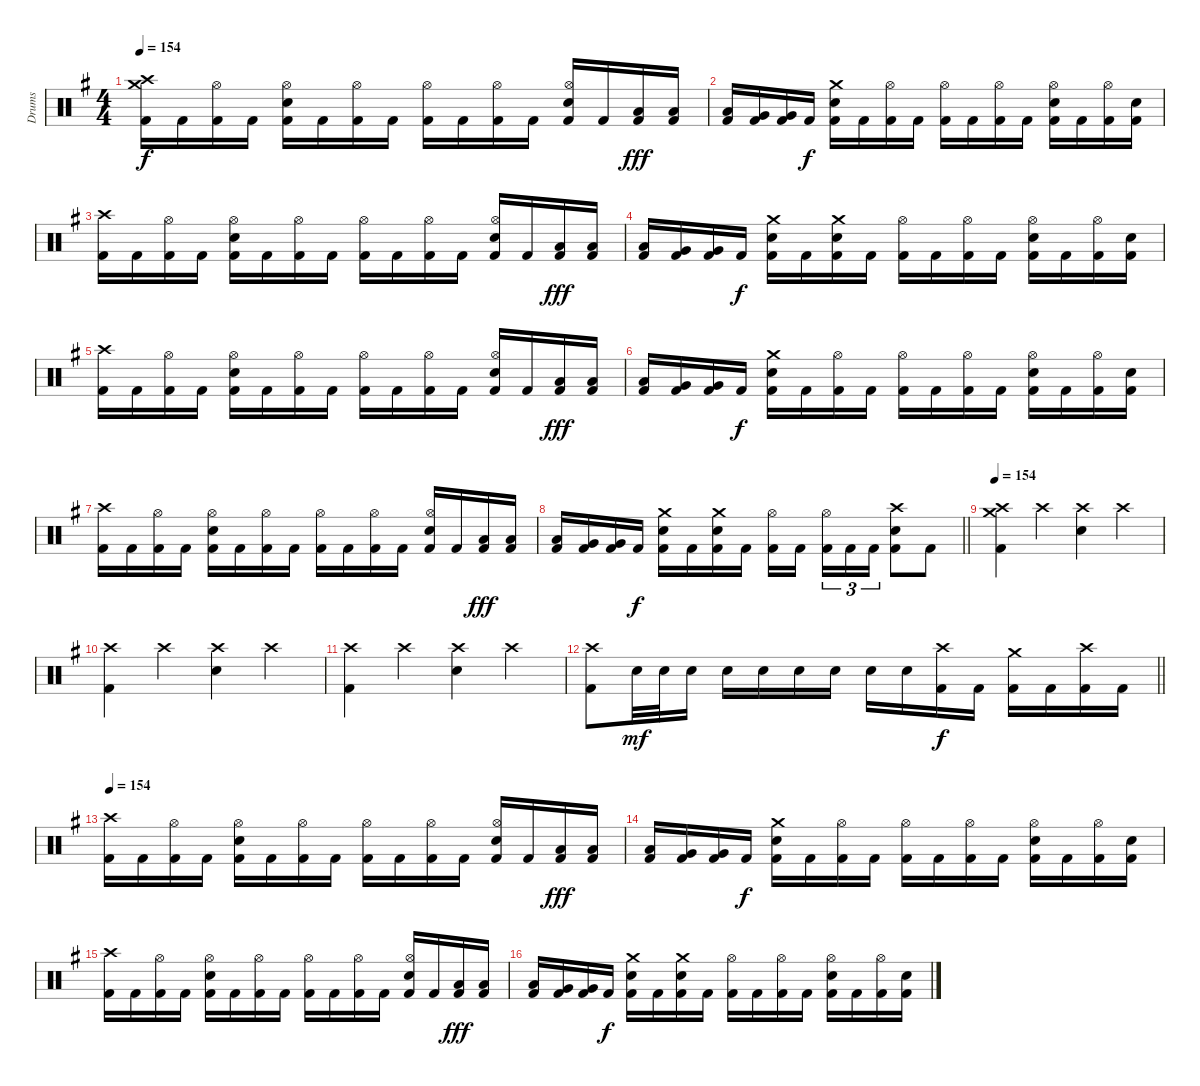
\track ("Drums" "Drums") {instrument percussion}
\staff {score}
\articulation defaults
\ts (4 4)
\tempo 154
\clef neutral
\ks eminor
("Crash high (hit)" "Crash medium (hit)" "Kick (hit) 2").16{dy f} "Kick (hit) 2".16 ("Hi-Hat (open)" "Kick (hit) 2").16 "Kick (hit) 2".16 ("Hi-Hat (open)" "Snare (hit) 2" "Kick (hit) 2").16 "Kick (hit) 2".16 ("Hi-Hat (open)" "Kick (hit) 2").16 "Kick (hit) 2".16 ("Hi-Hat (open)" "Kick (hit) 2").16 "Kick (hit) 2".16 ("Hi-Hat (open)" "Kick (hit) 2").16 "Kick (hit) 2".16 ("Hi-Hat (open)" "Snare (hit) 2" "Kick (hit) 2").16 "Kick (hit) 2".16 ("Low Tom (hit)" "Kick (hit) 2").16{dy fff} ("Low Tom (hit)" "Kick (hit) 2").16 |
("Low Tom (hit)" "Kick (hit) 2").16 ("Very Low Tom (hit)" "Kick (hit) 2").16 ("Very Low Tom (hit)" "Kick (hit) 2").16 "Kick (hit) 2".16{dy f} ("Crash medium (hit)" "Snare (hit) 2" "Kick (hit) 2").16 "Kick (hit) 2".16 ("Hi-Hat (open)" "Kick (hit) 2").16 "Kick (hit) 2".16 ("Hi-Hat (open)" "Kick (hit) 2").16 "Kick (hit) 2".16 ("Hi-Hat (open)" "Kick (hit) 2").16 "Kick (hit) 2".16 ("Hi-Hat (open)" "Snare (hit) 2" "Kick (hit) 2").16 "Kick (hit) 2".16 ("Hi-Hat (open)" "Kick (hit) 2").16 ("Snare (hit) 2" "Kick (hit) 2").16 |
("Crash high (hit)" "Kick (hit) 2").16 "Kick (hit) 2".16 ("Hi-Hat (open)" "Kick (hit) 2").16 "Kick (hit) 2".16 ("Hi-Hat (open)" "Snare (hit) 2" "Kick (hit) 2").16 "Kick (hit) 2".16 ("Hi-Hat (open)" "Kick (hit) 2").16 "Kick (hit) 2".16 ("Hi-Hat (open)" "Kick (hit) 2").16 "Kick (hit) 2".16 ("Hi-Hat (open)" "Kick (hit) 2").16 "Kick (hit) 2".16 ("Hi-Hat (open)" "Snare (hit) 2" "Kick (hit) 2").16 "Kick (hit) 2".16 ("Low Tom (hit)" "Kick (hit) 2").16{dy fff} ("Low Tom (hit)" "Kick (hit) 2").16 |
("Low Tom (hit)" "Kick (hit) 2").16 ("Very Low Tom (hit)" "Kick (hit) 2").16 ("Very Low Tom (hit)" "Kick (hit) 2").16 "Kick (hit) 2".16{dy f} ("Crash medium (hit)" "Snare (hit) 2" "Kick (hit) 2").16 "Kick (hit) 2".16 ("Crash medium (hit)" "Snare (hit) 2" "Kick (hit) 2").16 "Kick (hit) 2".16 ("Hi-Hat (open)" "Kick (hit) 2").16 "Kick (hit) 2".16 ("Hi-Hat (open)" "Kick (hit) 2").16 "Kick (hit) 2".16 ("Hi-Hat (open)" "Snare (hit) 2" "Kick (hit) 2").16 "Kick (hit) 2".16 ("Hi-Hat (open)" "Kick (hit) 2").16 ("Snare (hit) 2" "Kick (hit) 2").16 |
("Crash high (hit)" "Kick (hit) 2").16 "Kick (hit) 2".16 ("Hi-Hat (open)" "Kick (hit) 2").16 "Kick (hit) 2".16 ("Hi-Hat (open)" "Snare (hit) 2" "Kick (hit) 2").16 "Kick (hit) 2".16 ("Hi-Hat (open)" "Kick (hit) 2").16 "Kick (hit) 2".16 ("Hi-Hat (open)" "Kick (hit) 2").16 "Kick (hit) 2".16 ("Hi-Hat (open)" "Kick (hit) 2").16 "Kick (hit) 2".16 ("Hi-Hat (open)" "Snare (hit) 2" "Kick (hit) 2").16 "Kick (hit) 2".16 ("Low Tom (hit)" "Kick (hit) 2").16{dy fff} ("Low Tom (hit)" "Kick (hit) 2").16 |
("Low Tom (hit)" "Kick (hit) 2").16 ("Very Low Tom (hit)" "Kick (hit) 2").16 ("Very Low Tom (hit)" "Kick (hit) 2").16 "Kick (hit) 2".16{dy f} ("Crash medium (hit)" "Snare (hit) 2" "Kick (hit) 2").16 "Kick (hit) 2".16 ("Hi-Hat (open)" "Kick (hit) 2").16 "Kick (hit) 2".16 ("Hi-Hat (open)" "Kick (hit) 2").16 "Kick (hit) 2".16 ("Hi-Hat (open)" "Kick (hit) 2").16 "Kick (hit) 2".16 ("Hi-Hat (open)" "Snare (hit) 2" "Kick (hit) 2").16 "Kick (hit) 2".16 ("Hi-Hat (open)" "Kick (hit) 2").16 ("Snare (hit) 2" "Kick (hit) 2").16 |
("Crash high (hit)" "Kick (hit) 2").16 "Kick (hit) 2".16 ("Hi-Hat (open)" "Kick (hit) 2").16 "Kick (hit) 2".16 ("Hi-Hat (open)" "Snare (hit) 2" "Kick (hit) 2").16 "Kick (hit) 2".16 ("Hi-Hat (open)" "Kick (hit) 2").16 "Kick (hit) 2".16 ("Hi-Hat (open)" "Kick (hit) 2").16 "Kick (hit) 2".16 ("Hi-Hat (open)" "Kick (hit) 2").16 "Kick (hit) 2".16 ("Hi-Hat (open)" "Snare (hit) 2" "Kick (hit) 2").16 "Kick (hit) 2".16 ("Low Tom (hit)" "Kick (hit) 2").16{dy fff} ("Low Tom (hit)" "Kick (hit) 2").16 |
\barLineRight lightlight
("Low Tom (hit)" "Kick (hit) 2").16 ("Very Low Tom (hit)" "Kick (hit) 2").16 ("Very Low Tom (hit)" "Kick (hit) 2").16 "Kick (hit) 2".16{dy f} ("Crash medium (hit)" "Snare (hit) 2" "Kick (hit) 2").16 "Kick (hit) 2".16 ("Crash medium (hit)" "Snare (hit) 2" "Kick (hit) 2").16 "Kick (hit) 2".16 ("Hi-Hat (open)" "Kick (hit) 2").16 "Kick (hit) 2".16 ("Hi-Hat (open)" "Kick (hit) 2").16{tu (3 2)} "Kick (hit) 2".16{tu (3 2)} "Kick (hit) 2".16{tu (3 2)} ("Crash high (hit)" "Snare (hit) 2" "Kick (hit) 2").8 "Kick (hit) 2".8 |
\tempo 154
("Crash high (hit)" "Crash medium (hit)" "Kick (hit) 2").4 "Crash high (hit)".4 ("Crash high (hit)" "Snare (hit) 2").4 "Crash high (hit)".4 |
("Crash high (hit)" "Kick (hit) 2").4 "Crash high (hit)".4 ("Crash high (hit)" "Snare (hit) 2").4 "Crash high (hit)".4 |
("Crash high (hit)" "Kick (hit) 2").4 "Crash high (hit)".4 ("Crash high (hit)" "Snare (hit) 2").4 "Crash high (hit)".4 |
\barLineRight lightlight
("Crash high (hit)" "Kick (hit) 2").8 "Snare (hit) 2".32{dy mf} "Snare (hit) 2".32 "Snare (hit) 2".16 "Snare (hit) 2".16 "Snare (hit) 2".16 "Snare (hit) 2".16 "Snare (hit) 2".16 "Snare (hit) 2".16 "Snare (hit) 2".16 ("Crash high (hit)" "Kick (hit) 2").16{dy f} "Kick (hit) 2".16 ("Crash medium (hit)" "Kick (hit) 2").16 "Kick (hit) 2".16 ("Crash high (hit)" "Kick (hit) 2").16 "Kick (hit) 2".16 |
\tempo 154
("Crash high (hit)" "Kick (hit) 2").16 "Kick (hit) 2".16 ("Hi-Hat (open)" "Kick (hit) 2").16 "Kick (hit) 2".16 ("Hi-Hat (open)" "Snare (hit) 2" "Kick (hit) 2").16 "Kick (hit) 2".16 ("Hi-Hat (open)" "Kick (hit) 2").16 "Kick (hit) 2".16 ("Hi-Hat (open)" "Kick (hit) 2").16 "Kick (hit) 2".16 ("Hi-Hat (open)" "Kick (hit) 2").16 "Kick (hit) 2".16 ("Hi-Hat (open)" "Snare (hit) 2" "Kick (hit) 2").16 "Kick (hit) 2".16 ("Low Tom (hit)" "Kick (hit) 2").16{dy fff} ("Low Tom (hit)" "Kick (hit) 2").16 |
("Low Tom (hit)" "Kick (hit) 2").16 ("Very Low Tom (hit)" "Kick (hit) 2").16 ("Very Low Tom (hit)" "Kick (hit) 2").16 "Kick (hit) 2".16{dy f} ("Crash medium (hit)" "Snare (hit) 2" "Kick (hit) 2").16 "Kick (hit) 2".16 ("Hi-Hat (open)" "Kick (hit) 2").16 "Kick (hit) 2".16 ("Hi-Hat (open)" "Kick (hit) 2").16 "Kick (hit) 2".16 ("Hi-Hat (open)" "Kick (hit) 2").16 "Kick (hit) 2".16 ("Hi-Hat (open)" "Snare (hit) 2" "Kick (hit) 2").16 "Kick (hit) 2".16 ("Hi-Hat (open)" "Kick (hit) 2").16 ("Snare (hit) 2" "Kick (hit) 2").16 |
("Crash high (hit)" "Kick (hit) 2").16 "Kick (hit) 2".16 ("Hi-Hat (open)" "Kick (hit) 2").16 "Kick (hit) 2".16 ("Hi-Hat (open)" "Snare (hit) 2" "Kick (hit) 2").16 "Kick (hit) 2".16 ("Hi-Hat (open)" "Kick (hit) 2").16 "Kick (hit) 2".16 ("Hi-Hat (open)" "Kick (hit) 2").16 "Kick (hit) 2".16 ("Hi-Hat (open)" "Kick (hit) 2").16 "Kick (hit) 2".16 ("Hi-Hat (open)" "Snare (hit) 2" "Kick (hit) 2").16 "Kick (hit) 2".16 ("Low Tom (hit)" "Kick (hit) 2").16{dy fff} ("Low Tom (hit)" "Kick (hit) 2").16 |
("Low Tom (hit)" "Kick (hit) 2").16 ("Very Low Tom (hit)" "Kick (hit) 2").16 ("Very Low Tom (hit)" "Kick (hit) 2").16 "Kick (hit) 2".16{dy f} ("Crash medium (hit)" "Snare (hit) 2" "Kick (hit) 2").16 "Kick (hit) 2".16 ("Crash medium (hit)" "Snare (hit) 2" "Kick (hit) 2").16 "Kick (hit) 2".16 ("Hi-Hat (open)" "Kick (hit) 2").16 "Kick (hit) 2".16 ("Hi-Hat (open)" "Kick (hit) 2").16 "Kick (hit) 2".16 ("Hi-Hat (open)" "Snare (hit) 2" "Kick (hit) 2").16 "Kick (hit) 2".16 ("Hi-Hat (open)" "Kick (hit) 2").16 ("Snare (hit) 2" "Kick (hit) 2").16
